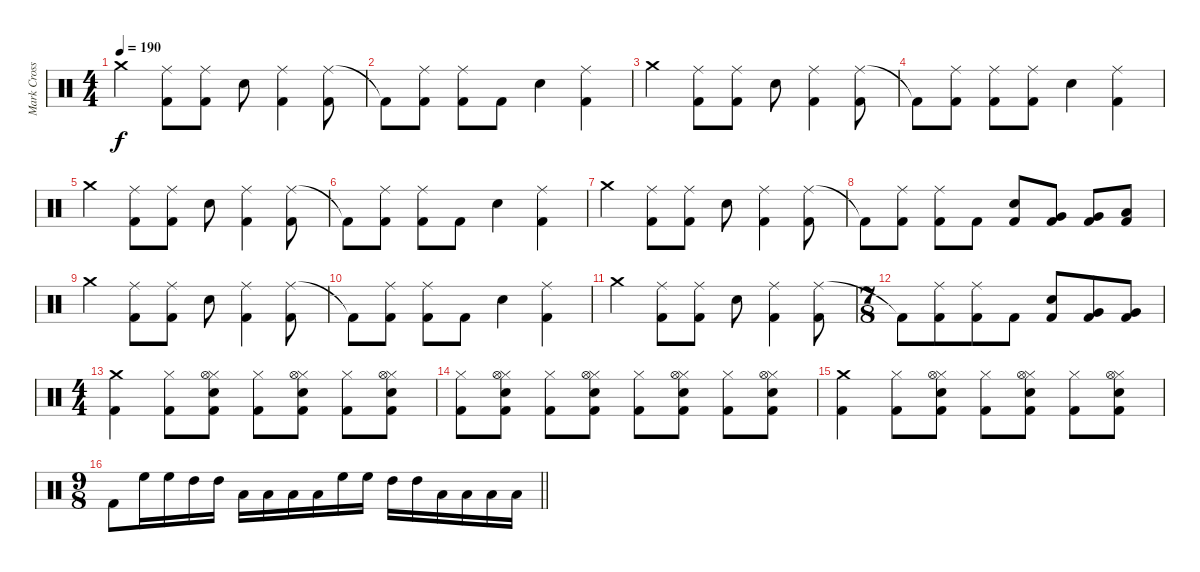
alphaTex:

\track ("Mark Cross" "Mark Cross") {instrument percussion}
\staff {score}
\articulation defaults
\ts (4 4)
\tempo 190
\clef neutral
\ks c "Crash medium (hit)".4{dy f}
("Ride (middle)" "Kick (hit) 2").8 ("Ride (middle)" "Kick (hit) 2").8 "Electric Snare (hit)".8 ("Ride (middle)" "Kick (hit) 2").4 ("Ride (middle)" "Kick (hit) 2").8 |
"Kick (hit) 2"{t}.8 ("Ride (middle)" "Kick (hit) 2").8 ("Ride (middle)" "Kick (hit) 2").8 "Kick (hit) 2".8 "Electric Snare (hit)".4 ("Ride (middle)" "Kick (hit) 2").4 |
"Crash medium (hit)".4 ("Ride (middle)" "Kick (hit) 2").8 ("Ride (middle)" "Kick (hit) 2").8 "Electric Snare (hit)".8 ("Ride (middle)" "Kick (hit) 2").4 ("Ride (middle)" "Kick (hit) 2").8 |
"Kick (hit) 2"{t}.8 ("Ride (middle)" "Kick (hit) 2").8 ("Ride (middle)" "Kick (hit) 2").8 ("Ride (middle)" "Kick (hit) 2").8 "Electric Snare (hit)".4 ("Ride (middle)" "Kick (hit) 2").4 |
"Crash medium (hit)".4 ("Ride (middle)" "Kick (hit) 2").8 ("Ride (middle)" "Kick (hit) 2").8 "Electric Snare (hit)".8 ("Ride (middle)" "Kick (hit) 2").4 ("Ride (middle)" "Kick (hit) 2").8 |
"Kick (hit) 2"{t}.8 ("Ride (middle)" "Kick (hit) 2").8 ("Ride (middle)" "Kick (hit) 2").8 "Kick (hit) 2".8 "Electric Snare (hit)".4 ("Ride (middle)" "Kick (hit) 2").4 |
"Crash medium (hit)".4 ("Ride (middle)" "Kick (hit) 2").8 ("Ride (middle)" "Kick (hit) 2").8 "Electric Snare (hit)".8 ("Ride (middle)" "Kick (hit) 2").4 ("Ride (middle)" "Kick (hit) 2").8 |
"Kick (hit) 2"{t}.8 ("Ride (middle)" "Kick (hit) 2").8 ("Ride (middle)" "Kick (hit) 2").8 "Kick (hit) 2".8 ("Electric Snare (hit)" "Kick (hit) 2").8 ("Very Low Tom (hit)" "Kick (hit) 2").8 ("Very Low Tom (hit)" "Kick (hit) 2").8 ("Low Floor Tom (hit)" "Kick (hit) 2").8 |
"Crash medium (hit)".4 ("Ride (middle)" "Kick (hit) 2").8 ("Ride (middle)" "Kick (hit) 2").8 "Electric Snare (hit)".8 ("Ride (middle)" "Kick (hit) 2").4 ("Ride (middle)" "Kick (hit) 2").8 |
"Kick (hit) 2"{t}.8 ("Ride (middle)" "Kick (hit) 2").8 ("Ride (middle)" "Kick (hit) 2").8 "Kick (hit) 2".8 "Electric Snare (hit)".4 ("Ride (middle)" "Kick (hit) 2").4 |
"Crash medium (hit)".4 ("Ride (middle)" "Kick (hit) 2").8 ("Ride (middle)" "Kick (hit) 2").8 "Electric Snare (hit)".8 ("Ride (middle)" "Kick (hit) 2").4 ("Ride (middle)" "Kick (hit) 2").8 |
\ts (7 8)
"Kick (hit) 2"{t}.8 ("Ride (middle)" "Kick (hit) 2").8 ("Ride (middle)" "Kick (hit) 2").8 "Kick (hit) 2".8 ("Electric Snare (hit)" "Kick (hit) 2").8 ("Very Low Tom (hit)" "Kick (hit) 2").8 ("Very Low Tom (hit)" "Kick (hit) 2").8 |
\ts (4 4)
("Crash medium (hit)" "Kick (hit) 2").4 ("Hi-Hat (closed)" "Kick (hit) 2").8 ("Hi-Hat (closed)" "Hi-Hat (open)" "Electric Snare (hit)" "Kick (hit) 2").8 ("Hi-Hat (closed)" "Kick (hit) 2").8 ("Hi-Hat (closed)" "Hi-Hat (open)" "Electric Snare (hit)" "Kick (hit) 2").8 ("Hi-Hat (closed)" "Kick (hit) 2").8 ("Hi-Hat (closed)" "Hi-Hat (open)" "Electric Snare (hit)" "Kick (hit) 2").8 |
("Hi-Hat (closed)" "Kick (hit) 2").8 ("Hi-Hat (closed)" "Hi-Hat (open)" "Electric Snare (hit)" "Kick (hit) 2").8 ("Hi-Hat (closed)" "Kick (hit) 2").8 ("Hi-Hat (closed)" "Hi-Hat (open)" "Electric Snare (hit)" "Kick (hit) 2").8 ("Hi-Hat (closed)" "Kick (hit) 2").8 ("Hi-Hat (closed)" "Hi-Hat (open)" "Electric Snare (hit)" "Kick (hit) 2").8 ("Hi-Hat (closed)" "Kick (hit) 2").8 ("Hi-Hat (closed)" "Hi-Hat (open)" "Electric Snare (hit)" "Kick (hit) 2").8 |
("Crash medium (hit)" "Kick (hit) 2").4 ("Hi-Hat (closed)" "Kick (hit) 2").8 ("Hi-Hat (closed)" "Hi-Hat (open)" "Electric Snare (hit)" "Kick (hit) 2").8 ("Hi-Hat (closed)" "Kick (hit) 2").8 ("Hi-Hat (closed)" "Hi-Hat (open)" "Electric Snare (hit)" "Kick (hit) 2").8 ("Hi-Hat (closed)" "Kick (hit) 2").8 ("Hi-Hat (closed)" "Hi-Hat (open)" "Electric Snare (hit)" "Kick (hit) 2").8 |
\ts (9 8)
\barLineRight lightlight "Kick (hit) 2".8 "High Floor Tom (hit)".16 "High Floor Tom (hit)".16 "High Tom (hit)".16 "High Tom (hit)".16 "Low Tom (hit)".16 "Low Tom (hit)".16 "Low Tom (hit)".16 "Low Tom (hit)".16 "High Floor Tom (hit)".16 "High Floor Tom (hit)".16 "High Tom (hit)".16 "High Tom (hit)".16 "Low Tom (hit)".16 "Low Tom (hit)".16 "Low Tom (hit)".16 "Low Tom (hit)".16
